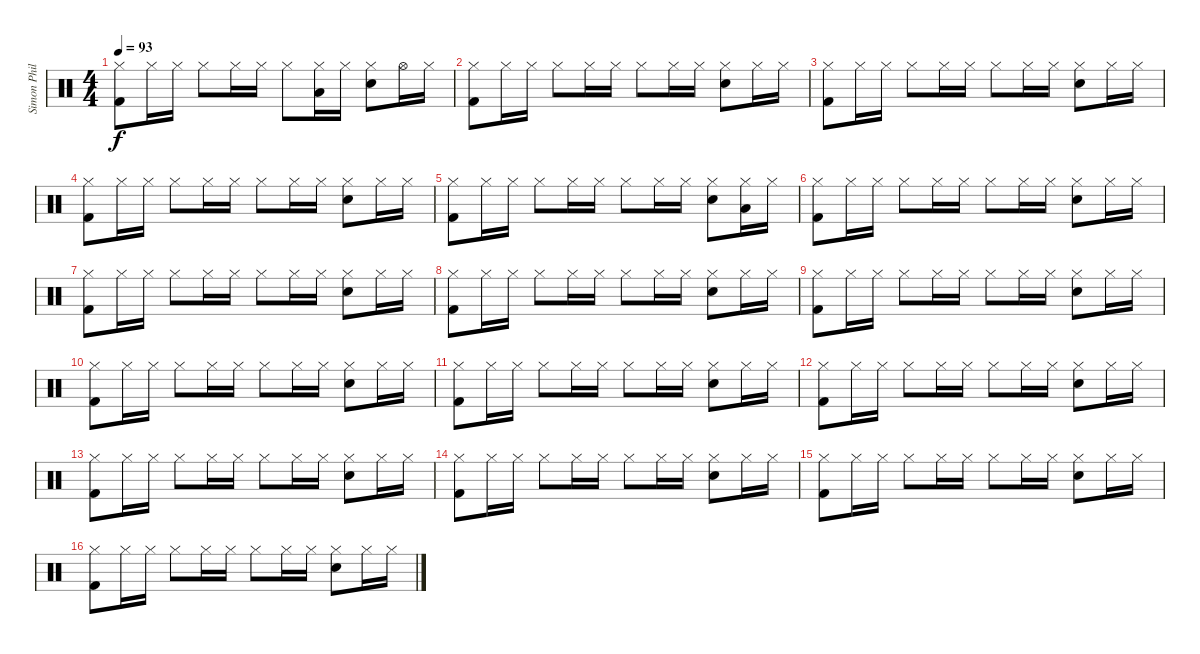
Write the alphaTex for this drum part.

\track ("Simon Phillips" "Simon Phil") {instrument percussion}
\staff {score}
\articulation defaults
\ts (4 4)
\tempo 93
\clef neutral
\ks c
("Hi-Hat (closed)" "Kick (hit) 2").8{dy f} "Hi-Hat (closed)".16 "Hi-Hat (closed)".16 "Hi-Hat (closed)".8 "Hi-Hat (closed)".16 "Hi-Hat (closed)".16 "Hi-Hat (closed)".8 ("Low Tom (hit)" "Hi-Hat (closed)").16 "Hi-Hat (closed)".16 ("Electric Snare (hit)" "Hi-Hat (closed)").8 "Hi-Hat (open)".16 "Hi-Hat (closed)".16 |
("Hi-Hat (closed)" "Kick (hit) 2").8 "Hi-Hat (closed)".16 "Hi-Hat (closed)".16 "Hi-Hat (closed)".8 "Hi-Hat (closed)".16 "Hi-Hat (closed)".16 "Hi-Hat (closed)".8 "Hi-Hat (closed)".16 "Hi-Hat (closed)".16 ("Electric Snare (hit)" "Hi-Hat (closed)").8 "Hi-Hat (closed)".16 "Hi-Hat (closed)".16 |
("Hi-Hat (closed)" "Kick (hit) 2").8 "Hi-Hat (closed)".16 "Hi-Hat (closed)".16 "Hi-Hat (closed)".8 "Hi-Hat (closed)".16 "Hi-Hat (closed)".16 "Hi-Hat (closed)".8 "Hi-Hat (closed)".16 "Hi-Hat (closed)".16 ("Electric Snare (hit)" "Hi-Hat (closed)").8 "Hi-Hat (closed)".16 "Hi-Hat (closed)".16 |
("Hi-Hat (closed)" "Kick (hit) 2").8 "Hi-Hat (closed)".16 "Hi-Hat (closed)".16 "Hi-Hat (closed)".8 "Hi-Hat (closed)".16 "Hi-Hat (closed)".16 "Hi-Hat (closed)".8 "Hi-Hat (closed)".16 "Hi-Hat (closed)".16 ("Electric Snare (hit)" "Hi-Hat (closed)").8 "Hi-Hat (closed)".16 "Hi-Hat (closed)".16 |
("Hi-Hat (closed)" "Kick (hit) 2").8 "Hi-Hat (closed)".16 "Hi-Hat (closed)".16 "Hi-Hat (closed)".8 "Hi-Hat (closed)".16 "Hi-Hat (closed)".16 "Hi-Hat (closed)".8 "Hi-Hat (closed)".16 "Hi-Hat (closed)".16 ("Electric Snare (hit)" "Hi-Hat (closed)").8 ("Low Tom (hit)" "Hi-Hat (closed)").16 "Hi-Hat (closed)".16 |
("Hi-Hat (closed)" "Kick (hit) 2").8 "Hi-Hat (closed)".16 "Hi-Hat (closed)".16 "Hi-Hat (closed)".8 "Hi-Hat (closed)".16 "Hi-Hat (closed)".16 "Hi-Hat (closed)".8 "Hi-Hat (closed)".16 "Hi-Hat (closed)".16 ("Electric Snare (hit)" "Hi-Hat (closed)").8 "Hi-Hat (closed)".16 "Hi-Hat (closed)".16 |
("Hi-Hat (closed)" "Kick (hit) 2").8 "Hi-Hat (closed)".16 "Hi-Hat (closed)".16 "Hi-Hat (closed)".8 "Hi-Hat (closed)".16 "Hi-Hat (closed)".16 "Hi-Hat (closed)".8 "Hi-Hat (closed)".16 "Hi-Hat (closed)".16 ("Electric Snare (hit)" "Hi-Hat (closed)").8 "Hi-Hat (closed)".16 "Hi-Hat (closed)".16 |
("Hi-Hat (closed)" "Kick (hit) 2").8 "Hi-Hat (closed)".16 "Hi-Hat (closed)".16 "Hi-Hat (closed)".8 "Hi-Hat (closed)".16 "Hi-Hat (closed)".16 "Hi-Hat (closed)".8 "Hi-Hat (closed)".16 "Hi-Hat (closed)".16 ("Electric Snare (hit)" "Hi-Hat (closed)").8 "Hi-Hat (closed)".16 "Hi-Hat (closed)".16 |
("Hi-Hat (closed)" "Kick (hit) 2").8 "Hi-Hat (closed)".16 "Hi-Hat (closed)".16 "Hi-Hat (closed)".8 "Hi-Hat (closed)".16 "Hi-Hat (closed)".16 "Hi-Hat (closed)".8 "Hi-Hat (closed)".16 "Hi-Hat (closed)".16 ("Electric Snare (hit)" "Hi-Hat (closed)").8 "Hi-Hat (closed)".16 "Hi-Hat (closed)".16 |
("Hi-Hat (closed)" "Kick (hit) 2").8 "Hi-Hat (closed)".16 "Hi-Hat (closed)".16 "Hi-Hat (closed)".8 "Hi-Hat (closed)".16 "Hi-Hat (closed)".16 "Hi-Hat (closed)".8 "Hi-Hat (closed)".16 "Hi-Hat (closed)".16 ("Electric Snare (hit)" "Hi-Hat (closed)").8 "Hi-Hat (closed)".16 "Hi-Hat (closed)".16 |
("Hi-Hat (closed)" "Kick (hit) 2").8 "Hi-Hat (closed)".16 "Hi-Hat (closed)".16 "Hi-Hat (closed)".8 "Hi-Hat (closed)".16 "Hi-Hat (closed)".16 "Hi-Hat (closed)".8 "Hi-Hat (closed)".16 "Hi-Hat (closed)".16 ("Electric Snare (hit)" "Hi-Hat (closed)").8 "Hi-Hat (closed)".16 "Hi-Hat (closed)".16 |
("Hi-Hat (closed)" "Kick (hit) 2").8 "Hi-Hat (closed)".16 "Hi-Hat (closed)".16 "Hi-Hat (closed)".8 "Hi-Hat (closed)".16 "Hi-Hat (closed)".16 "Hi-Hat (closed)".8 "Hi-Hat (closed)".16 "Hi-Hat (closed)".16 ("Electric Snare (hit)" "Hi-Hat (closed)").8 "Hi-Hat (closed)".16 "Hi-Hat (closed)".16 |
("Hi-Hat (closed)" "Kick (hit) 2").8 "Hi-Hat (closed)".16 "Hi-Hat (closed)".16 "Hi-Hat (closed)".8 "Hi-Hat (closed)".16 "Hi-Hat (closed)".16 "Hi-Hat (closed)".8 "Hi-Hat (closed)".16 "Hi-Hat (closed)".16 ("Electric Snare (hit)" "Hi-Hat (closed)").8 "Hi-Hat (closed)".16 "Hi-Hat (closed)".16 |
("Hi-Hat (closed)" "Kick (hit) 2").8 "Hi-Hat (closed)".16 "Hi-Hat (closed)".16 "Hi-Hat (closed)".8 "Hi-Hat (closed)".16 "Hi-Hat (closed)".16 "Hi-Hat (closed)".8 "Hi-Hat (closed)".16 "Hi-Hat (closed)".16 ("Electric Snare (hit)" "Hi-Hat (closed)").8 "Hi-Hat (closed)".16 "Hi-Hat (closed)".16 |
("Hi-Hat (closed)" "Kick (hit) 2").8 "Hi-Hat (closed)".16 "Hi-Hat (closed)".16 "Hi-Hat (closed)".8 "Hi-Hat (closed)".16 "Hi-Hat (closed)".16 "Hi-Hat (closed)".8 "Hi-Hat (closed)".16 "Hi-Hat (closed)".16 ("Electric Snare (hit)" "Hi-Hat (closed)").8 "Hi-Hat (closed)".16 "Hi-Hat (closed)".16 |
("Hi-Hat (closed)" "Kick (hit) 2").8 "Hi-Hat (closed)".16 "Hi-Hat (closed)".16 "Hi-Hat (closed)".8 "Hi-Hat (closed)".16 "Hi-Hat (closed)".16 "Hi-Hat (closed)".8 "Hi-Hat (closed)".16 "Hi-Hat (closed)".16 ("Electric Snare (hit)" "Hi-Hat (closed)").8 "Hi-Hat (closed)".16 "Hi-Hat (closed)".16
